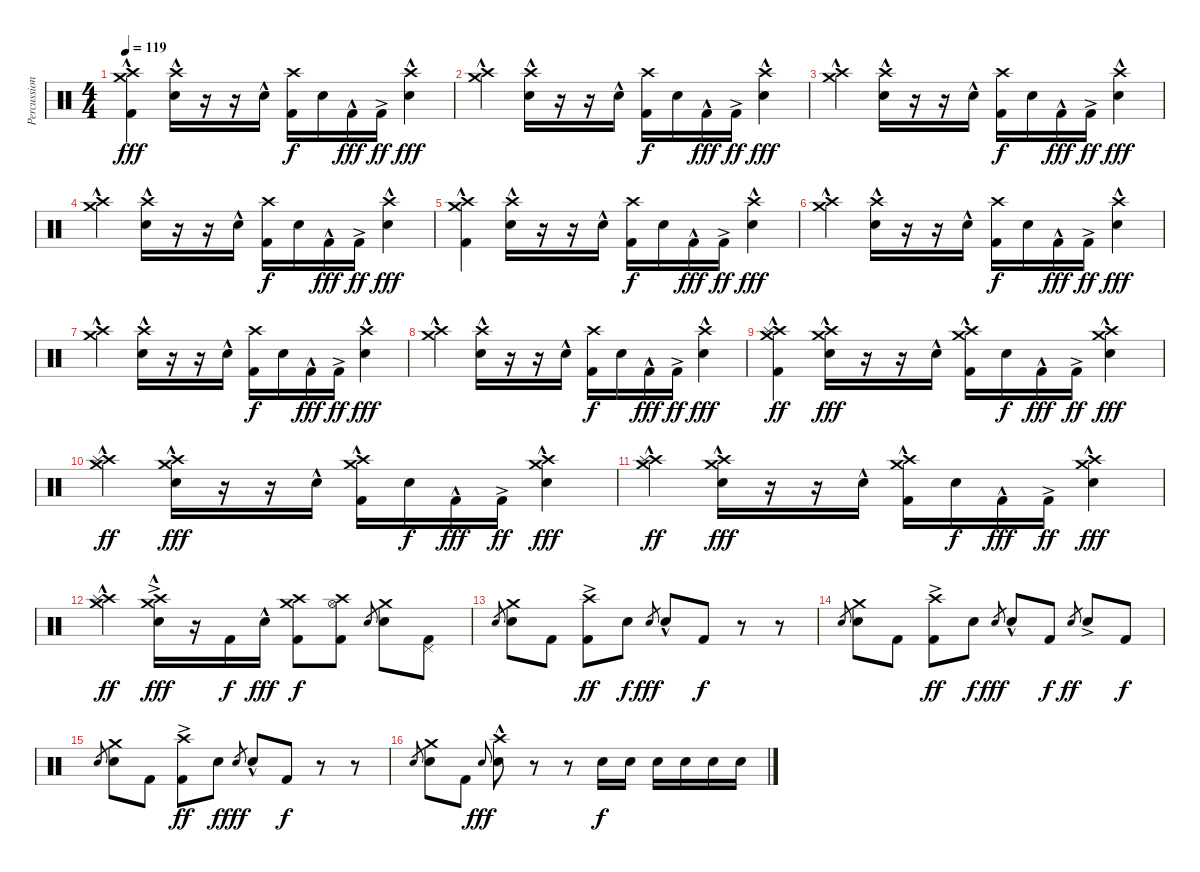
\track ("Percussion" "Percussion") {instrument percussion}
\staff {score}
\articulation defaults
\ts (4 4)
\tempo 119
\clef neutral
\ks c
("Crash high (hit)" "Crash medium (hit)"{hac} "Kick (hit) 2").4{dy fff} ("Crash high (hit)" "Electric Snare (hit)"{hac}).16 r.16 r.16 "Electric Snare (hit)"{hac}.16 ("Crash high (hit)" "Kick (hit) 2").16{dy f} "Electric Snare (hit)".16 "Kick (hit) 2"{hac}.16{dy fff} "Kick (hit) 2"{ac}.16{dy ff} ("Crash high (hit)" "Electric Snare (hit)"{hac}).4{dy fff} |
("Crash high (hit)" "Crash medium (hit)"{hac}).4 ("Crash high (hit)" "Electric Snare (hit)"{hac}).16 r.16 r.16 "Electric Snare (hit)"{hac}.16 ("Crash high (hit)" "Kick (hit) 2").16{dy f} "Electric Snare (hit)".16 "Kick (hit) 2"{hac}.16{dy fff} "Kick (hit) 2"{ac}.16{dy ff} ("Crash high (hit)" "Electric Snare (hit)"{hac}).4{dy fff} |
("Crash high (hit)" "Crash medium (hit)"{hac}).4 ("Crash high (hit)" "Electric Snare (hit)"{hac}).16 r.16 r.16 "Electric Snare (hit)"{hac}.16 ("Crash high (hit)" "Kick (hit) 2").16{dy f} "Electric Snare (hit)".16 "Kick (hit) 2"{hac}.16{dy fff} "Kick (hit) 2"{ac}.16{dy ff} ("Crash high (hit)" "Electric Snare (hit)"{hac}).4{dy fff} |
("Crash high (hit)" "Crash medium (hit)"{hac}).4 ("Crash high (hit)" "Electric Snare (hit)"{hac}).16 r.16 r.16 "Electric Snare (hit)"{hac}.16 ("Crash high (hit)" "Kick (hit) 2").16{dy f} "Electric Snare (hit)".16 "Kick (hit) 2"{hac}.16{dy fff} "Kick (hit) 2"{ac}.16{dy ff} ("Crash high (hit)" "Electric Snare (hit)"{hac}).4{dy fff} |
("Crash high (hit)" "Crash medium (hit)"{hac} "Kick (hit) 2").4 ("Crash high (hit)" "Electric Snare (hit)"{hac}).16 r.16 r.16 "Electric Snare (hit)"{hac}.16 ("Crash high (hit)" "Kick (hit) 2").16{dy f} "Electric Snare (hit)".16 "Kick (hit) 2"{hac}.16{dy fff} "Kick (hit) 2"{ac}.16{dy ff} ("Crash high (hit)" "Electric Snare (hit)"{hac}).4{dy fff} |
("Crash high (hit)" "Crash medium (hit)"{hac}).4 ("Crash high (hit)" "Electric Snare (hit)"{hac}).16 r.16 r.16 "Electric Snare (hit)"{hac}.16 ("Crash high (hit)" "Kick (hit) 2").16{dy f} "Electric Snare (hit)".16 "Kick (hit) 2"{hac}.16{dy fff} "Kick (hit) 2"{ac}.16{dy ff} ("Crash high (hit)" "Electric Snare (hit)"{hac}).4{dy fff} |
("Crash high (hit)" "Crash medium (hit)"{hac}).4 ("Crash high (hit)" "Electric Snare (hit)"{hac}).16 r.16 r.16 "Electric Snare (hit)"{hac}.16 ("Crash high (hit)" "Kick (hit) 2").16{dy f} "Electric Snare (hit)".16 "Kick (hit) 2"{hac}.16{dy fff} "Kick (hit) 2"{ac}.16{dy ff} ("Crash high (hit)" "Electric Snare (hit)"{hac}).4{dy fff} |
("Crash high (hit)" "Crash medium (hit)"{hac}).4 ("Crash high (hit)" "Electric Snare (hit)"{hac}).16 r.16 r.16 "Electric Snare (hit)"{hac}.16 ("Crash high (hit)" "Kick (hit) 2").16{dy f} "Electric Snare (hit)".16 "Kick (hit) 2"{hac}.16{dy fff} "Kick (hit) 2"{ac}.16{dy ff} ("Crash high (hit)" "Electric Snare (hit)"{hac}).4{dy fff} |
("Crash high (hit)"{hac} "Crash medium (hit)"{hac} "Splash (hit)"{hac} "Kick (hit) 2").4{dy ff} ("Crash high (hit)" "Crash medium (hit)"{hac} "Electric Snare (hit)"{hac}).16{dy fff} r.16 r.16 "Electric Snare (hit)"{hac}.16 ("Crash high (hit)" "Crash medium (hit)"{hac} "Kick (hit) 2").16 "Electric Snare (hit)".16{dy f} "Kick (hit) 2"{hac}.16{dy fff} "Kick (hit) 2"{ac}.16{dy ff} ("Crash high (hit)" "Crash medium (hit)"{hac} "Electric Snare (hit)"{hac}).4{dy fff} |
("Crash high (hit)"{hac} "Crash medium (hit)"{hac} "Splash (hit)"{hac}).4{dy ff} ("Crash high (hit)" "Crash medium (hit)"{hac} "Electric Snare (hit)"{hac}).16{dy fff} r.16 r.16 "Electric Snare (hit)"{hac}.16 ("Crash high (hit)" "Crash medium (hit)"{hac} "Kick (hit) 2").16 "Electric Snare (hit)".16{dy f} "Kick (hit) 2"{hac}.16{dy fff} "Kick (hit) 2"{ac}.16{dy ff} ("Crash high (hit)" "Crash medium (hit)"{hac} "Electric Snare (hit)"{hac}).4{dy fff} |
("Crash high (hit)"{hac} "Crash medium (hit)"{hac} "Splash (hit)"{hac}).4{dy ff} ("Crash high (hit)" "Crash medium (hit)"{hac} "Electric Snare (hit)"{hac}).16{dy fff} r.16 r.16 "Electric Snare (hit)"{hac}.16 ("Crash high (hit)" "Crash medium (hit)"{hac} "Kick (hit) 2").16 "Electric Snare (hit)".16{dy f} "Kick (hit) 2"{hac}.16{dy fff} "Kick (hit) 2"{ac}.16{dy ff} ("Crash high (hit)" "Crash medium (hit)"{hac} "Electric Snare (hit)"{hac}).4{dy fff} |
("Crash high (hit)"{hac} "Crash medium (hit)"{hac} "Splash (hit)"{hac}).4{dy ff} ("Crash high (hit)" "Crash medium (hit)"{ac} "Electric Snare (hit)"{hac}).16{dy fff} r.16 "Kick (hit) 2".16{dy f} "Electric Snare (hit)"{hac}.16{dy fff} ("Crash high (hit)" "Crash medium (hit)" "Kick (hit) 2").8{dy f} ("Crash high (hit)" "Hi-Hat (open)" "Kick (hit) 2").8 "Electric Snare (hit)".8{gr} ("Crash medium (hit)" "Electric Snare (hit)").8 ("Pedal Hi-Hat (hit)" "Kick (hit) 2").8 |
"Electric Snare (hit)".8{gr} ("Crash medium (hit)" "Electric Snare (hit)").8 "Kick (hit) 2".8 ("Crash high (hit)" "Kick (hit) 2"{ac}).8{dy ff} "Electric Snare (hit)".8{dy f} "Electric Snare (hit)".8{gr dy fff} "Electric Snare (hit)"{hac}.8 "Kick (hit) 2".8{dy f} r.8 r.8 |
"Electric Snare (hit)".8{gr} ("Crash medium (hit)" "Electric Snare (hit)").8 "Kick (hit) 2".8 ("Crash high (hit)" "Kick (hit) 2"{ac}).8{dy ff} "Electric Snare (hit)".8{dy f} "Electric Snare (hit)".8{gr dy fff} "Electric Snare (hit)"{hac}.8 "Kick (hit) 2".8{dy f} "Electric Snare (hit)".8{gr dy ff} "Electric Snare (hit)"{ac}.8 "Kick (hit) 2".8{dy f} |
"Electric Snare (hit)".8{gr} ("Crash medium (hit)" "Electric Snare (hit)").8 "Kick (hit) 2".8 ("Crash high (hit)" "Kick (hit) 2"{ac}).8{dy ff} "Electric Snare (hit)".8{dy f} "Electric Snare (hit)".8{gr dy fff} "Electric Snare (hit)"{hac}.8 "Kick (hit) 2".8{dy f} r.8 r.8 |
"Electric Snare (hit)".8{gr} ("Crash medium (hit)" "Electric Snare (hit)").8 "Kick (hit) 2".8 "Electric Snare (hit)".8{gr onbeat dy fff} ("Crash high (hit)" "Electric Snare (hit)"{hac}).8 r.8 r.8 "Electric Snare (hit)".16{dy f} "Electric Snare (hit)".16 "Electric Snare (hit)".16 "Electric Snare (hit)".16 "Electric Snare (hit)".16 "Electric Snare (hit)".16
